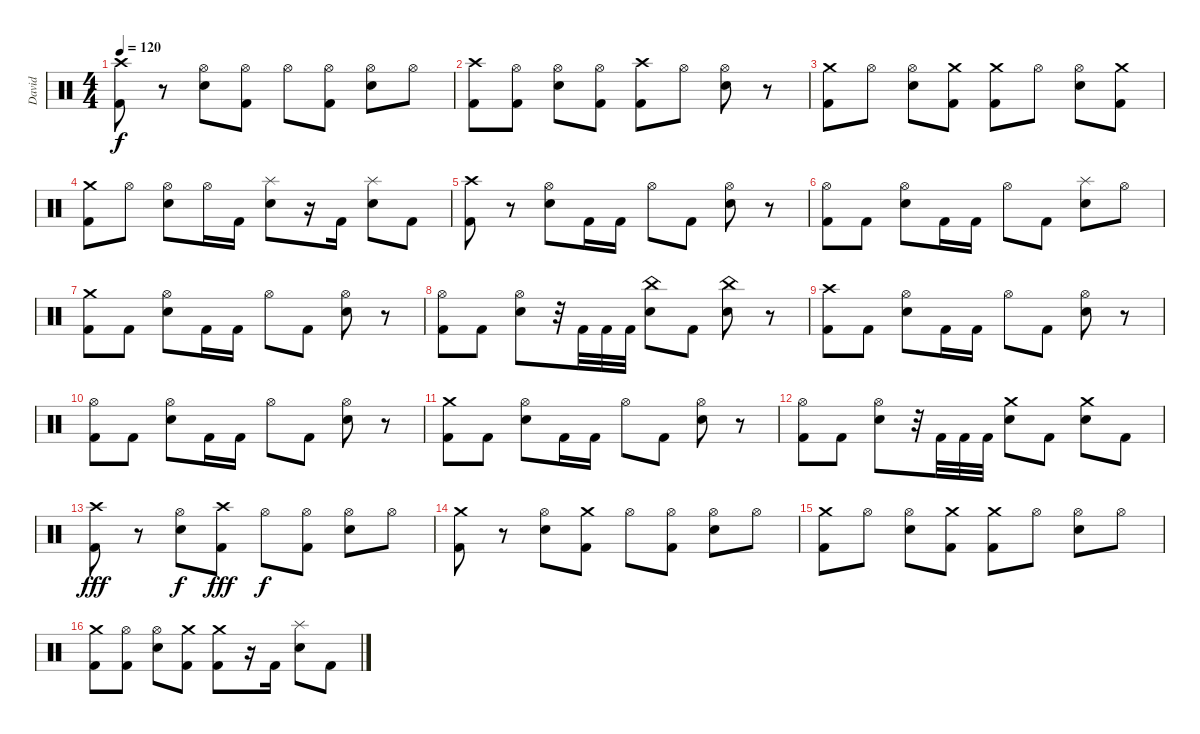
\track ("David" "David") {instrument percussion}
\staff {score}
\articulation defaults
\ts (4 4)
\tempo 120
\clef neutral
\ks c
("Crash high (hit)" "Kick (hit) 2").8{dy f} r.8 ("Hi-Hat (open)" "Electric Snare (hit)").8 ("Hi-Hat (open)" "Kick (hit) 2").8 "Hi-Hat (open)".8 ("Hi-Hat (open)" "Kick (hit) 2").8 ("Hi-Hat (open)" "Electric Snare (hit)").8 "Hi-Hat (open)".8 |
("Crash high (hit)" "Kick (hit) 2").8 ("Hi-Hat (open)" "Kick (hit) 2").8 ("Hi-Hat (open)" "Electric Snare (hit)").8 ("Hi-Hat (open)" "Kick (hit) 2").8 ("Crash high (hit)" "Kick (hit) 2").8 "Hi-Hat (open)".8 ("Hi-Hat (open)" "Electric Snare (hit)").8 r.8 |
("Crash medium (hit)" "Kick (hit) 2").8 "Hi-Hat (open)".8 ("Hi-Hat (open)" "Electric Snare (hit)").8 ("Crash medium (hit)" "Kick (hit) 2").8 ("Crash medium (hit)" "Kick (hit) 2").8 "Hi-Hat (open)".8 ("Hi-Hat (open)" "Electric Snare (hit)").8 ("Crash medium (hit)" "Kick (hit) 2").8 |
("Crash medium (hit)" "Kick (hit) 2").8 "Hi-Hat (open)".8 ("Hi-Hat (open)" "Electric Snare (hit)").8 "Hi-Hat (open)".16 "Kick (hit) 2".16 ("Splash (hit)" "Electric Snare (hit)").8 r.16 "Kick (hit) 2".16 ("Splash (hit)" "Electric Snare (hit)").8 "Kick (hit) 2".8 |
("Crash high (hit)" "Kick (hit) 2").8 r.8 ("Hi-Hat (open)" "Electric Snare (hit)").8 "Kick (hit) 2".16 "Kick (hit) 2".16 "Hi-Hat (open)".8 "Kick (hit) 2".8 ("Hi-Hat (open)" "Electric Snare (hit)").8 r.8 |
("Hi-Hat (open)" "Kick (hit) 2").8 "Kick (hit) 2".8 ("Hi-Hat (open)" "Electric Snare (hit)").8 "Kick (hit) 2".16 "Kick (hit) 2".16 "Hi-Hat (open)".8 "Kick (hit) 2".8 ("Splash (hit)" "Electric Snare (hit)").8 "Hi-Hat (open)".8 |
("Crash medium (hit)" "Kick (hit) 2").8 "Kick (hit) 2".8 ("Hi-Hat (open)" "Electric Snare (hit)").8 "Kick (hit) 2".16 "Kick (hit) 2".16 "Hi-Hat (open)".8 "Kick (hit) 2".8 ("Hi-Hat (open)" "Electric Snare (hit)").8 r.8 |
("Hi-Hat (open)" "Kick (hit) 2").8 "Kick (hit) 2".8 ("Hi-Hat (open)" "Electric Snare (hit)").8 r.32 "Kick (hit) 2".32 "Kick (hit) 2".32 "Kick (hit) 2".32 ("China (hit)" "Electric Snare (hit)").8 "Kick (hit) 2".8 ("China (hit)" "Electric Snare (hit)").8 r.8 |
("Crash high (hit)" "Kick (hit) 2").8 "Kick (hit) 2".8 ("Hi-Hat (open)" "Electric Snare (hit)").8 "Kick (hit) 2".16 "Kick (hit) 2".16 "Hi-Hat (open)".8 "Kick (hit) 2".8 ("Hi-Hat (open)" "Electric Snare (hit)").8 r.8 |
("Hi-Hat (open)" "Kick (hit) 2").8 "Kick (hit) 2".8 ("Hi-Hat (open)" "Electric Snare (hit)").8 "Kick (hit) 2".16 "Kick (hit) 2".16 "Hi-Hat (open)".8 "Kick (hit) 2".8 ("Hi-Hat (open)" "Electric Snare (hit)").8 r.8 |
("Crash medium (hit)" "Kick (hit) 2").8 "Kick (hit) 2".8 ("Hi-Hat (open)" "Electric Snare (hit)").8 "Kick (hit) 2".16 "Kick (hit) 2".16 "Hi-Hat (open)".8 "Kick (hit) 2".8 ("Hi-Hat (open)" "Electric Snare (hit)").8 r.8 |
("Hi-Hat (open)" "Kick (hit) 2").8 "Kick (hit) 2".8 ("Hi-Hat (open)" "Electric Snare (hit)").8 r.32 "Kick (hit) 2".32 "Kick (hit) 2".32 "Kick (hit) 2".32 ("Crash medium (hit)" "Electric Snare (hit)").8 "Kick (hit) 2".8 ("Crash medium (hit)" "Electric Snare (hit)").8 "Kick (hit) 2".8 |
("Crash high (hit)" "Kick (hit) 2").8{dy fff} r.8 ("Hi-Hat (open)" "Electric Snare (hit)").8{dy f} ("Crash high (hit)" "Kick (hit) 2").8{dy fff} "Hi-Hat (open)".8{dy f} ("Hi-Hat (open)" "Kick (hit) 2").8 ("Hi-Hat (open)" "Electric Snare (hit)").8 "Hi-Hat (open)".8 |
("Crash medium (hit)" "Kick (hit) 2").8 r.8 ("Hi-Hat (open)" "Electric Snare (hit)").8 ("Crash medium (hit)" "Kick (hit) 2").8 "Hi-Hat (open)".8 ("Hi-Hat (open)" "Kick (hit) 2").8 ("Hi-Hat (open)" "Electric Snare (hit)").8 "Hi-Hat (open)".8 |
("Crash medium (hit)" "Kick (hit) 2").8 "Hi-Hat (open)".8 ("Hi-Hat (open)" "Electric Snare (hit)").8 ("Crash medium (hit)" "Kick (hit) 2").8 ("Crash medium (hit)" "Kick (hit) 2").8 "Hi-Hat (open)".8 ("Hi-Hat (open)" "Electric Snare (hit)").8 "Hi-Hat (open)".8 |
("Crash medium (hit)" "Kick (hit) 2").8 ("Hi-Hat (open)" "Kick (hit) 2").8 ("Hi-Hat (open)" "Electric Snare (hit)").8 ("Crash medium (hit)" "Kick (hit) 2").8 ("Crash medium (hit)" "Kick (hit) 2").8 r.16 "Kick (hit) 2".16 ("Splash (hit)" "Electric Snare (hit)").8 "Kick (hit) 2".8
